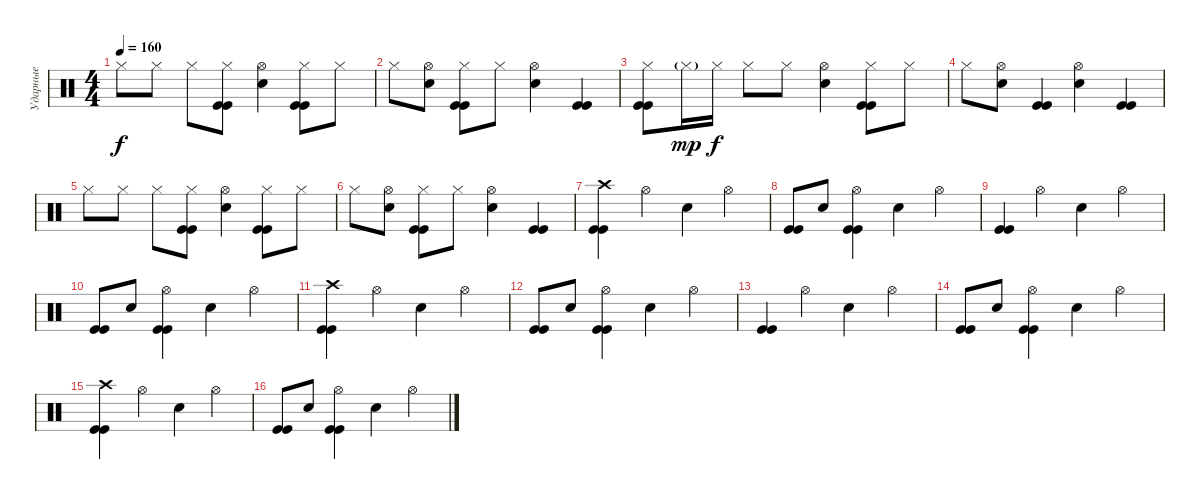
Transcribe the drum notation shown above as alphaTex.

\track ("Ударные" "Ударные") {instrument percussion}
\staff {score}
\articulation defaults
\ts (4 4)
\tempo 160
\clef neutral
\ks c "Hi-Hat (closed)".8{dy f} "Hi-Hat (closed)".8 "Hi-Hat (closed)".8
("Hi-Hat (closed)" "Kick (hit)" "Kick (hit)").8 ("Electric Snare (hit)" "Hi-Hat (open)").4 ("Hi-Hat (closed)" "Kick (hit)" "Kick (hit)").8 "Hi-Hat (closed)".8 |
"Hi-Hat (closed)".8 ("Electric Snare (hit)" "Hi-Hat (open)").8 ("Hi-Hat (closed)" "Kick (hit)" "Kick (hit)").8 "Hi-Hat (closed)".8 ("Electric Snare (hit)" "Hi-Hat (open)").4 ("Kick (hit)" "Kick (hit)").4 |
("Hi-Hat (closed)" "Kick (hit)" "Kick (hit)").8 "Hi-Hat (closed)"{g}.16{dy mp} "Hi-Hat (closed)".16{dy f} "Hi-Hat (closed)".8 "Hi-Hat (closed)".8 ("Electric Snare (hit)" "Hi-Hat (open)").4 ("Hi-Hat (closed)" "Kick (hit)" "Kick (hit)").8 "Hi-Hat (closed)".8 |
"Hi-Hat (closed)".8 ("Electric Snare (hit)" "Hi-Hat (open)").8 ("Kick (hit)" "Kick (hit)").4 ("Electric Snare (hit)" "Hi-Hat (open)").4 ("Kick (hit)" "Kick (hit)").4 |
"Hi-Hat (closed)".8 "Hi-Hat (closed)".8 "Hi-Hat (closed)".8 ("Hi-Hat (closed)" "Kick (hit)" "Kick (hit)").8 ("Electric Snare (hit)" "Hi-Hat (open)").4 ("Hi-Hat (closed)" "Kick (hit)" "Kick (hit)").8 "Hi-Hat (closed)".8 |
"Hi-Hat (closed)".8 ("Electric Snare (hit)" "Hi-Hat (open)").8 ("Hi-Hat (closed)" "Kick (hit)" "Kick (hit)").8 "Hi-Hat (closed)".8 ("Electric Snare (hit)" "Hi-Hat (open)").4 ("Kick (hit)" "Kick (hit)").4 |
("Crash high (hit)" "Kick (hit)" "Kick (hit)").4 "Hi-Hat (open)".4 "Electric Snare (hit)".4 "Hi-Hat (open)".4 |
("Kick (hit)" "Kick (hit)").8 "Electric Snare (hit)".8 ("Hi-Hat (open)" "Kick (hit)" "Kick (hit)").4 "Electric Snare (hit)".4 "Hi-Hat (open)".4 |
("Kick (hit)" "Kick (hit)").4 "Hi-Hat (open)".4 "Electric Snare (hit)".4 "Hi-Hat (open)".4 |
("Kick (hit)" "Kick (hit)").8 "Electric Snare (hit)".8 ("Hi-Hat (open)" "Kick (hit)" "Kick (hit)").4 "Electric Snare (hit)".4 "Hi-Hat (open)".4 |
("Crash high (hit)" "Kick (hit)" "Kick (hit)").4 "Hi-Hat (open)".4 "Electric Snare (hit)".4 "Hi-Hat (open)".4 |
("Kick (hit)" "Kick (hit)").8 "Electric Snare (hit)".8 ("Hi-Hat (open)" "Kick (hit)" "Kick (hit)").4 "Electric Snare (hit)".4 "Hi-Hat (open)".4 |
("Kick (hit)" "Kick (hit)").4 "Hi-Hat (open)".4 "Electric Snare (hit)".4 "Hi-Hat (open)".4 |
("Kick (hit)" "Kick (hit)").8 "Electric Snare (hit)".8 ("Hi-Hat (open)" "Kick (hit)" "Kick (hit)").4 "Electric Snare (hit)".4 "Hi-Hat (open)".4 |
("Crash high (hit)" "Kick (hit)" "Kick (hit)").4 "Hi-Hat (open)".4 "Electric Snare (hit)".4 "Hi-Hat (open)".4 |
("Kick (hit)" "Kick (hit)").8 "Electric Snare (hit)".8 ("Hi-Hat (open)" "Kick (hit)" "Kick (hit)").4 "Electric Snare (hit)".4 "Hi-Hat (open)".4
